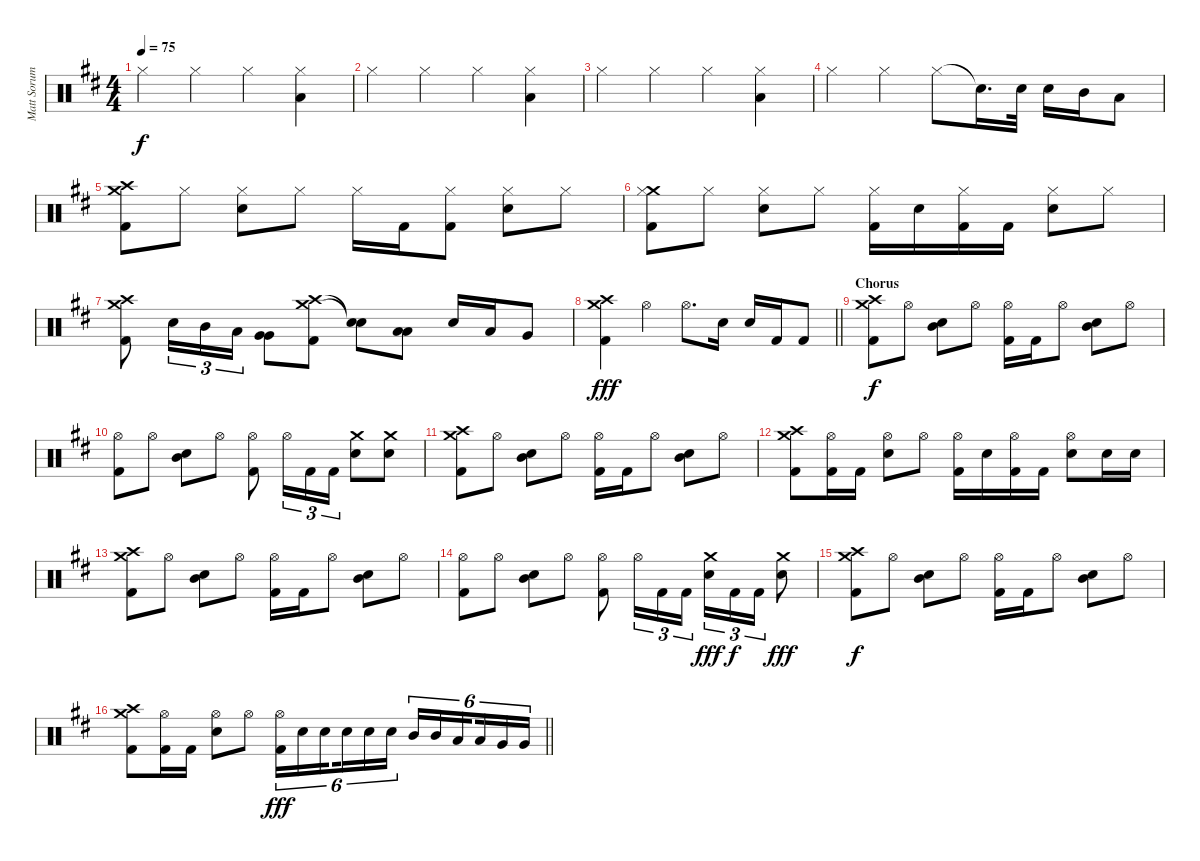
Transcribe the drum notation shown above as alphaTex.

\track ("Matt Sorum- Drums" "Matt Sorum") {instrument percussion}
\staff {score}
\articulation defaults
\ts (4 4)
\tempo 75
\clef neutral
\ks d "Hi-Hat (closed)".4{dy f} "Hi-Hat (closed)".4 "Hi-Hat (closed)".4
("Hi-Hat (closed)" "Low Tom (hit)").4 |
"Hi-Hat (closed)".4 "Hi-Hat (closed)".4 "Hi-Hat (closed)".4 ("Hi-Hat (closed)" "Low Tom (hit)").4 |
"Hi-Hat (closed)".4 "Hi-Hat (closed)".4 "Hi-Hat (closed)".4 ("Hi-Hat (closed)" "Low Tom (hit)").4 |
"Hi-Hat (closed)".4 "Hi-Hat (closed)".4 "Hi-Hat (closed)".8 "Snare (hit)"{t}.16{d} "Snare (hit) 2".32 "Snare (hit) 2".16 "Mid Tom (hit)".16 "Low Tom (hit)".8 |
("Crash medium (hit)" "Crash high (hit)" "Kick (hit) 2").8 "Hi-Hat (closed)".8 ("Hi-Hat (closed)" "Snare (hit) 2").8 "Hi-Hat (closed)".8 "Hi-Hat (closed)".16 "Kick (hit) 2".16 ("Hi-Hat (closed)" "Kick (hit) 2").8 ("Hi-Hat (closed)" "Snare (hit) 2").8 "Hi-Hat (closed)".8 |
("Crash medium (hit)" "Hi-Hat (closed)" "Kick (hit) 2").8 "Hi-Hat (closed)".8 ("Hi-Hat (closed)" "Snare (hit) 2").8 "Hi-Hat (closed)".8 ("Hi-Hat (closed)" "Kick (hit) 2").16 "Snare (hit) 2".16 ("Hi-Hat (closed)" "Kick (hit) 2").16 "Kick (hit) 2".16 ("Hi-Hat (closed)" "Snare (hit) 2").8 "Hi-Hat (closed)".8 |
("Crash medium (hit)" "Crash high (hit)" "Kick (hit) 2").8 "Snare (hit) 2".16{tu (3 2)} "Mid Tom (hit)".16{tu (3 2)} "Low Tom (hit)".16{tu (3 2)} ("Very Low Tom (hit)" "Very Low Tom (hit)").8 ("Crash medium (hit)" "Crash high (hit)" "Kick (hit) 2").8 ("Snare (hit)"{t} "Snare (hit)"{t}).8 ("Low Tom (hit)" "Low Tom (hit)").8 "Snare (hit) 2".16 "Low Tom (hit)".16 "Very Low Tom (hit)".8 |
\barLineRight lightlight
("Crash medium (hit)" "Crash high (hit)" "Kick (hit) 2").4{dy fff} "Hi-Hat (open)".4 "Hi-Hat (open)".8{d} "Snare (hit) 2".16 "Snare (hit) 2".16 "Kick (hit) 2".16 "Kick (hit) 2".8 |
\section ("" "Chorus")
("Crash medium (hit)" "Crash high (hit)" "Kick (hit) 2").8{dy f} "Hi-Hat (open)".8 ("Mid Tom (hit)" "Snare (hit) 2").8 "Hi-Hat (open)".8 ("Hi-Hat (open)" "Kick (hit) 2").16 "Kick (hit) 2".16 "Hi-Hat (open)".8 ("Mid Tom (hit)" "Snare (hit) 2").8 "Hi-Hat (open)".8 |
("Hi-Hat (open)" "Kick (hit) 2").8 "Hi-Hat (open)".8 ("Mid Tom (hit)" "Snare (hit) 2").8 "Hi-Hat (open)".8 ("Hi-Hat (open)" "Kick (hit) 2").8 "Hi-Hat (open)".16{tu (3 2)} "Kick (hit) 2".16{tu (3 2)} "Kick (hit) 2".16{tu (3 2)} ("Crash medium (hit)" "Snare (hit) 2").8 ("Crash medium (hit)" "Snare (hit) 2").8 |
("Crash medium (hit)" "Crash high (hit)" "Kick (hit) 2").8 "Hi-Hat (open)".8 ("Mid Tom (hit)" "Snare (hit) 2").8 "Hi-Hat (open)".8 ("Hi-Hat (open)" "Kick (hit) 2").16 "Kick (hit) 2".16 "Hi-Hat (open)".8 ("Mid Tom (hit)" "Snare (hit) 2").8 "Hi-Hat (open)".8 |
("Crash medium (hit)" "Crash high (hit)" "Kick (hit) 2").8 ("Hi-Hat (open)" "Kick (hit) 2").16 "Kick (hit) 2".16 ("Hi-Hat (open)" "Snare (hit) 2").8 "Hi-Hat (open)".8 ("Hi-Hat (open)" "Kick (hit) 2").16 "Snare (hit) 2".16 ("Hi-Hat (open)" "Kick (hit) 2").16 "Kick (hit) 2".16 ("Hi-Hat (open)" "Snare (hit) 2").8 "Snare (hit) 2".16 "Snare (hit) 2".16 |
("Crash medium (hit)" "Crash high (hit)" "Kick (hit) 2").8 "Hi-Hat (open)".8 ("Mid Tom (hit)" "Snare (hit) 2").8 "Hi-Hat (open)".8 ("Hi-Hat (open)" "Kick (hit) 2").16 "Kick (hit) 2".16 "Hi-Hat (open)".8 ("Mid Tom (hit)" "Snare (hit) 2").8 "Hi-Hat (open)".8 |
("Hi-Hat (open)" "Kick (hit) 2").8 "Hi-Hat (open)".8 ("Mid Tom (hit)" "Snare (hit) 2").8 "Hi-Hat (open)".8 ("Hi-Hat (open)" "Kick (hit) 2").8 "Hi-Hat (open)".16{tu (3 2)} "Kick (hit) 2".16{tu (3 2)} "Kick (hit) 2".16{tu (3 2)} ("Crash medium (hit)" "Snare (hit) 2").16{tu (3 2) dy fff} "Kick (hit) 2".16{tu (3 2) dy f} "Kick (hit) 2".16{tu (3 2)} ("Crash medium (hit)" "Snare (hit) 2").8{dy fff} |
("Crash medium (hit)" "Crash high (hit)" "Kick (hit) 2").8{dy f} "Hi-Hat (open)".8 ("Mid Tom (hit)" "Snare (hit) 2").8 "Hi-Hat (open)".8 ("Hi-Hat (open)" "Kick (hit) 2").16 "Kick (hit) 2".16 "Hi-Hat (open)".8 ("Mid Tom (hit)" "Snare (hit) 2").8 "Hi-Hat (open)".8 |
\barLineRight lightlight
("Crash medium (hit)" "Crash high (hit)" "Kick (hit) 2").8 ("Hi-Hat (open)" "Kick (hit) 2").16 "Kick (hit) 2".16 ("Hi-Hat (open)" "Snare (hit) 2").8 "Hi-Hat (open)".8 ("Hi-Hat (open)" "Kick (hit) 2").16{tu (6 4) dy fff} "Snare (hit) 2".16{tu (6 4)} "Snare (hit) 2".16{tu (6 4) beam splitsecondary} "Snare (hit) 2".16{tu (6 4)} "Snare (hit) 2".16{tu (6 4)} "Snare (hit) 2".16{tu (6 4)} "Mid Tom (hit)".16{tu (6 4)} "Mid Tom (hit)".16{tu (6 4)} "Low Tom (hit)".16{tu (6 4) beam splitsecondary} "Low Tom (hit)".16{tu (6 4)} "Very Low Tom (hit)".16{tu (6 4)} "Very Low Tom (hit)".16{tu (6 4)}
